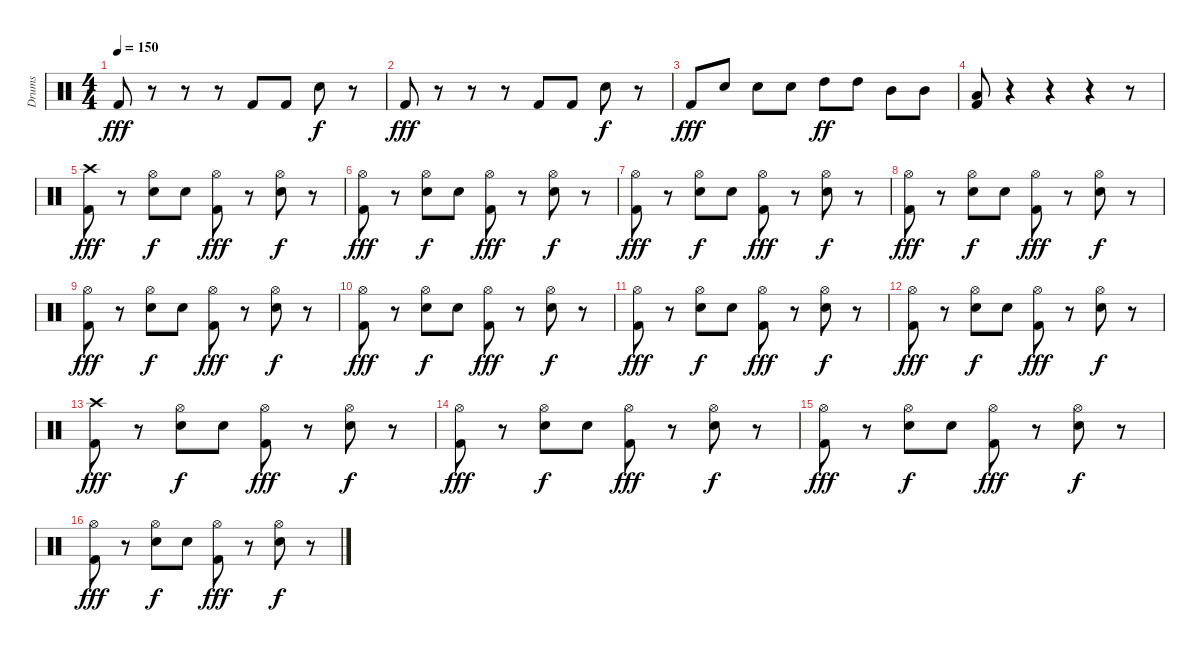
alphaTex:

\track ("Drums" "Drums") {instrument percussion}
\staff {score}
\articulation defaults
\ts (4 4)
\tempo 150
\clef neutral
\ks c "Kick (hit) 2".8{dy fff}
r.8 r.8 r.8 "Kick (hit) 2".8 "Kick (hit) 2".8 "Snare (hit) 2".8{dy f} r.8 |
"Kick (hit) 2".8{dy fff} r.8 r.8 r.8 "Kick (hit) 2".8 "Kick (hit) 2".8 "Snare (hit) 2".8{dy f} r.8 |
"Kick (hit) 2".8{dy fff} "Snare (hit) 2".8 "Snare (hit) 2".8 "Snare (hit) 2".8 "High Tom (hit)".8{dy ff} "High Tom (hit)".8 "Mid Tom (hit)".8 "Mid Tom (hit)".8 |
("Low Tom (hit)" "Kick (hit) 2").8 r.4 r.4 r.4 r.8 |
("Crash high (hit)" "Kick (hit) 2").8{dy fff} r.8 ("Hi-Hat (open)" "Snare (hit) 2").8{dy f} "Snare (hit) 2".8 ("Hi-Hat (open)" "Kick (hit) 2").8{dy fff} r.8 ("Hi-Hat (open)" "Snare (hit) 2").8{dy f} r.8 |
("Hi-Hat (open)" "Kick (hit) 2").8{dy fff} r.8 ("Hi-Hat (open)" "Snare (hit) 2").8{dy f} "Snare (hit) 2".8 ("Hi-Hat (open)" "Kick (hit) 2").8{dy fff} r.8 ("Hi-Hat (open)" "Snare (hit) 2").8{dy f} r.8 |
("Hi-Hat (open)" "Kick (hit) 2").8{dy fff} r.8 ("Hi-Hat (open)" "Snare (hit) 2").8{dy f} "Snare (hit) 2".8 ("Hi-Hat (open)" "Kick (hit) 2").8{dy fff} r.8 ("Hi-Hat (open)" "Snare (hit) 2").8{dy f} r.8 |
("Hi-Hat (open)" "Kick (hit) 2").8{dy fff} r.8 ("Hi-Hat (open)" "Snare (hit) 2").8{dy f} "Snare (hit) 2".8 ("Hi-Hat (open)" "Kick (hit) 2").8{dy fff} r.8 ("Hi-Hat (open)" "Snare (hit) 2").8{dy f} r.8 |
("Hi-Hat (open)" "Kick (hit) 2").8{dy fff} r.8 ("Hi-Hat (open)" "Snare (hit) 2").8{dy f} "Snare (hit) 2".8 ("Hi-Hat (open)" "Kick (hit) 2").8{dy fff} r.8 ("Hi-Hat (open)" "Snare (hit) 2").8{dy f} r.8 |
("Hi-Hat (open)" "Kick (hit) 2").8{dy fff} r.8 ("Hi-Hat (open)" "Snare (hit) 2").8{dy f} "Snare (hit) 2".8 ("Hi-Hat (open)" "Kick (hit) 2").8{dy fff} r.8 ("Hi-Hat (open)" "Snare (hit) 2").8{dy f} r.8 |
("Hi-Hat (open)" "Kick (hit) 2").8{dy fff} r.8 ("Hi-Hat (open)" "Snare (hit) 2").8{dy f} "Snare (hit) 2".8 ("Hi-Hat (open)" "Kick (hit) 2").8{dy fff} r.8 ("Hi-Hat (open)" "Snare (hit) 2").8{dy f} r.8 |
("Hi-Hat (open)" "Kick (hit) 2").8{dy fff} r.8 ("Hi-Hat (open)" "Snare (hit) 2").8{dy f} "Snare (hit) 2".8 ("Hi-Hat (open)" "Kick (hit) 2").8{dy fff} r.8 ("Hi-Hat (open)" "Snare (hit) 2").8{dy f} r.8 |
("Crash high (hit)" "Kick (hit) 2").8{dy fff} r.8 ("Hi-Hat (open)" "Snare (hit) 2").8{dy f} "Snare (hit) 2".8 ("Hi-Hat (open)" "Kick (hit) 2").8{dy fff} r.8 ("Hi-Hat (open)" "Snare (hit) 2").8{dy f} r.8 |
("Hi-Hat (open)" "Kick (hit) 2").8{dy fff} r.8 ("Hi-Hat (open)" "Snare (hit) 2").8{dy f} "Snare (hit) 2".8 ("Hi-Hat (open)" "Kick (hit) 2").8{dy fff} r.8 ("Hi-Hat (open)" "Snare (hit) 2").8{dy f} r.8 |
("Hi-Hat (open)" "Kick (hit) 2").8{dy fff} r.8 ("Hi-Hat (open)" "Snare (hit) 2").8{dy f} "Snare (hit) 2".8 ("Hi-Hat (open)" "Kick (hit) 2").8{dy fff} r.8 ("Hi-Hat (open)" "Snare (hit) 2").8{dy f} r.8 |
("Hi-Hat (open)" "Kick (hit) 2").8{dy fff} r.8 ("Hi-Hat (open)" "Snare (hit) 2").8{dy f} "Snare (hit) 2".8 ("Hi-Hat (open)" "Kick (hit) 2").8{dy fff} r.8 ("Hi-Hat (open)" "Snare (hit) 2").8{dy f} r.8
